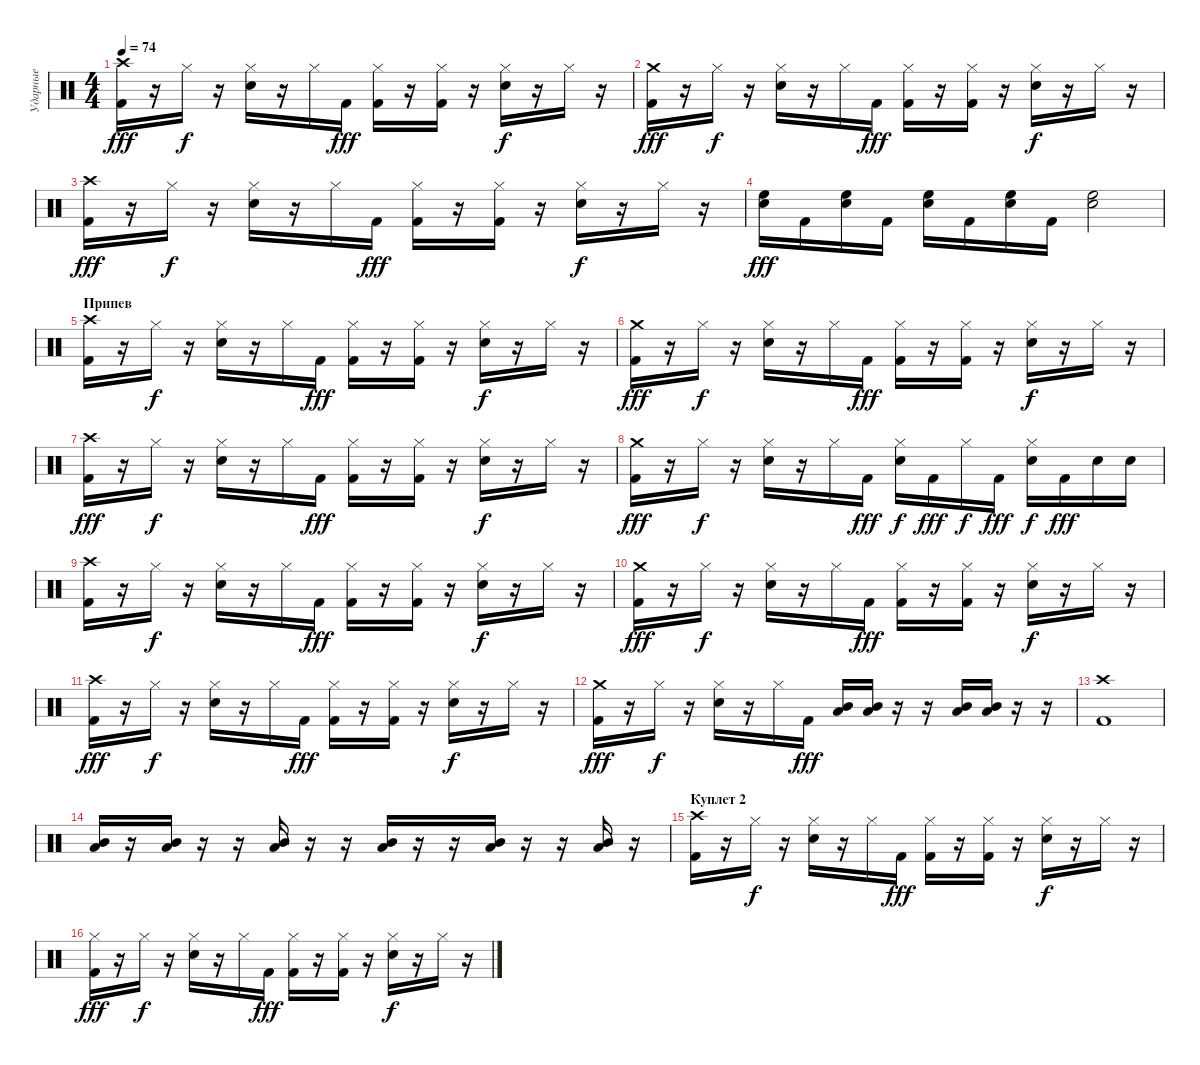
\track ("Ударные" "Ударные") {instrument percussion}
\staff {score}
\articulation defaults
\ts (4 4)
\tempo 74
\clef neutral
\ks c
("Crash high (hit)" "Kick (hit) 2").16{dy fff} r.16 "Hi-Hat (closed)".16{dy f} r.16 ("Hi-Hat (closed)" "Electric Snare (hit)").16 r.16 "Hi-Hat (closed)".16 "Kick (hit) 2".16{dy fff} ("Hi-Hat (closed)" "Kick (hit) 2").16 r.16 ("Hi-Hat (closed)" "Kick (hit) 2").16 r.16 ("Hi-Hat (closed)" "Electric Snare (hit)").16{dy f} r.16 "Hi-Hat (closed)".16 r.16 |
("Crash medium (hit)" "Kick (hit) 2").16{dy fff} r.16 "Hi-Hat (closed)".16{dy f} r.16 ("Hi-Hat (closed)" "Electric Snare (hit)").16 r.16 "Hi-Hat (closed)".16 "Kick (hit) 2".16{dy fff} ("Hi-Hat (closed)" "Kick (hit) 2").16 r.16 ("Hi-Hat (closed)" "Kick (hit) 2").16 r.16 ("Hi-Hat (closed)" "Electric Snare (hit)").16{dy f} r.16 "Hi-Hat (closed)".16 r.16 |
("Crash high (hit)" "Kick (hit) 2").16{dy fff} r.16 "Hi-Hat (closed)".16{dy f} r.16 ("Hi-Hat (closed)" "Electric Snare (hit)").16 r.16 "Hi-Hat (closed)".16 "Kick (hit) 2".16{dy fff} ("Hi-Hat (closed)" "Kick (hit) 2").16 r.16 ("Hi-Hat (closed)" "Kick (hit) 2").16 r.16 ("Hi-Hat (closed)" "Electric Snare (hit)").16{dy f} r.16 "Hi-Hat (closed)".16 r.16 |
("High Floor Tom (hit)" "Electric Snare (hit)").16{dy fff} "Kick (hit) 2".16 ("High Floor Tom (hit)" "Electric Snare (hit)").16 "Kick (hit) 2".16 ("High Floor Tom (hit)" "Electric Snare (hit)").16 "Kick (hit) 2".16 ("High Floor Tom (hit)" "Electric Snare (hit)").16 "Kick (hit) 2".16 ("High Floor Tom (hit)" "Electric Snare (hit)").2 |
\section ("" "Припев")
("Crash high (hit)" "Kick (hit) 2").16 r.16 "Hi-Hat (closed)".16{dy f} r.16 ("Hi-Hat (closed)" "Electric Snare (hit)").16 r.16 "Hi-Hat (closed)".16 "Kick (hit) 2".16{dy fff} ("Hi-Hat (closed)" "Kick (hit) 2").16 r.16 ("Hi-Hat (closed)" "Kick (hit) 2").16 r.16 ("Hi-Hat (closed)" "Electric Snare (hit)").16{dy f} r.16 "Hi-Hat (closed)".16 r.16 |
("Crash medium (hit)" "Kick (hit) 2").16{dy fff} r.16 "Hi-Hat (closed)".16{dy f} r.16 ("Hi-Hat (closed)" "Electric Snare (hit)").16 r.16 "Hi-Hat (closed)".16 "Kick (hit) 2".16{dy fff} ("Hi-Hat (closed)" "Kick (hit) 2").16 r.16 ("Hi-Hat (closed)" "Kick (hit) 2").16 r.16 ("Hi-Hat (closed)" "Electric Snare (hit)").16{dy f} r.16 "Hi-Hat (closed)".16 r.16 |
("Crash high (hit)" "Kick (hit) 2").16{dy fff} r.16 "Hi-Hat (closed)".16{dy f} r.16 ("Hi-Hat (closed)" "Electric Snare (hit)").16 r.16 "Hi-Hat (closed)".16 "Kick (hit) 2".16{dy fff} ("Hi-Hat (closed)" "Kick (hit) 2").16 r.16 ("Hi-Hat (closed)" "Kick (hit) 2").16 r.16 ("Hi-Hat (closed)" "Electric Snare (hit)").16{dy f} r.16 "Hi-Hat (closed)".16 r.16 |
("Crash medium (hit)" "Kick (hit) 2").16{dy fff} r.16 "Hi-Hat (closed)".16{dy f} r.16 ("Hi-Hat (closed)" "Electric Snare (hit)").16 r.16 "Hi-Hat (closed)".16 "Kick (hit) 2".16{dy fff} ("Hi-Hat (closed)" "Electric Snare (hit)").16{dy f} "Kick (hit) 2".16{dy fff} "Hi-Hat (closed)".16{dy f} "Kick (hit) 2".16{dy fff} ("Hi-Hat (closed)" "Electric Snare (hit)").16{dy f} "Kick (hit) 2".16{dy fff} "Electric Snare (hit)".16 "Electric Snare (hit)".16 |
("Crash high (hit)" "Kick (hit) 2").16 r.16 "Hi-Hat (closed)".16{dy f} r.16 ("Hi-Hat (closed)" "Electric Snare (hit)").16 r.16 "Hi-Hat (closed)".16 "Kick (hit) 2".16{dy fff} ("Hi-Hat (closed)" "Kick (hit) 2").16 r.16 ("Hi-Hat (closed)" "Kick (hit) 2").16 r.16 ("Hi-Hat (closed)" "Electric Snare (hit)").16{dy f} r.16 "Hi-Hat (closed)".16 r.16 |
("Crash medium (hit)" "Kick (hit) 2").16{dy fff} r.16 "Hi-Hat (closed)".16{dy f} r.16 ("Hi-Hat (closed)" "Electric Snare (hit)").16 r.16 "Hi-Hat (closed)".16 "Kick (hit) 2".16{dy fff} ("Hi-Hat (closed)" "Kick (hit) 2").16 r.16 ("Hi-Hat (closed)" "Kick (hit) 2").16 r.16 ("Hi-Hat (closed)" "Electric Snare (hit)").16{dy f} r.16 "Hi-Hat (closed)".16 r.16 |
("Crash high (hit)" "Kick (hit) 2").16{dy fff} r.16 "Hi-Hat (closed)".16{dy f} r.16 ("Hi-Hat (closed)" "Electric Snare (hit)").16 r.16 "Hi-Hat (closed)".16 "Kick (hit) 2".16{dy fff} ("Hi-Hat (closed)" "Kick (hit) 2").16 r.16 ("Hi-Hat (closed)" "Kick (hit) 2").16 r.16 ("Hi-Hat (closed)" "Electric Snare (hit)").16{dy f} r.16 "Hi-Hat (closed)".16 r.16 |
("Crash medium (hit)" "Kick (hit) 2").16{dy fff} r.16 "Hi-Hat (closed)".16{dy f} r.16 ("Hi-Hat (closed)" "Electric Snare (hit)").16 r.16 "Hi-Hat (closed)".16 "Kick (hit) 2".16{dy fff} ("Mid Tom (hit)" "Low Tom (hit)").16 ("Mid Tom (hit)" "Low Tom (hit)").16 r.16 r.16 ("Mid Tom (hit)" "Low Tom (hit)").16 ("Mid Tom (hit)" "Low Tom (hit)").16 r.16 r.16 |
("Crash high (hit)" "Kick (hit) 2").1 |
("Mid Tom (hit)" "Low Tom (hit)").16 r.16 ("Mid Tom (hit)" "Low Tom (hit)").16 r.16 r.16 ("Mid Tom (hit)" "Low Tom (hit)").16 r.16 r.16 ("Mid Tom (hit)" "Low Tom (hit)").16 r.16 r.16 ("Mid Tom (hit)" "Low Tom (hit)").16 r.16 r.16 ("Mid Tom (hit)" "Low Tom (hit)").16 r.16 |
\section ("" "Куплет 2")
("Crash high (hit)" "Kick (hit) 2").16 r.16 "Hi-Hat (closed)".16{dy f} r.16 ("Hi-Hat (closed)" "Electric Snare (hit)").16 r.16 "Hi-Hat (closed)".16 "Kick (hit) 2".16{dy fff} ("Hi-Hat (closed)" "Kick (hit) 2").16 r.16 ("Hi-Hat (closed)" "Kick (hit) 2").16 r.16 ("Hi-Hat (closed)" "Electric Snare (hit)").16{dy f} r.16 "Hi-Hat (closed)".16 r.16 |
("Hi-Hat (closed)" "Kick (hit) 2").16{dy fff} r.16 "Hi-Hat (closed)".16{dy f} r.16 ("Hi-Hat (closed)" "Electric Snare (hit)").16 r.16 "Hi-Hat (closed)".16 "Kick (hit) 2".16{dy fff} ("Hi-Hat (closed)" "Kick (hit) 2").16 r.16 ("Hi-Hat (closed)" "Kick (hit) 2").16 r.16 ("Hi-Hat (closed)" "Electric Snare (hit)").16{dy f} r.16 "Hi-Hat (closed)".16 r.16
